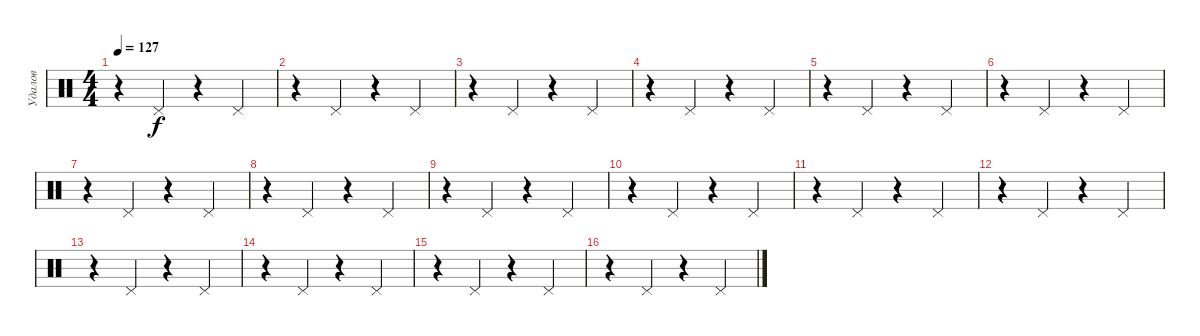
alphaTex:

\track ("Удалов" "Удалов") {instrument percussion}
\staff {score}
\articulation defaults
\ts (4 4)
\tempo 127
\clef neutral
\ks c
r.4{dy f} "Pedal Hi-Hat (hit)".4 r.4 "Pedal Hi-Hat (hit)".4 |
r.4 "Pedal Hi-Hat (hit)".4 r.4 "Pedal Hi-Hat (hit)".4 |
r.4 "Pedal Hi-Hat (hit)".4 r.4 "Pedal Hi-Hat (hit)".4 |
r.4 "Pedal Hi-Hat (hit)".4 r.4 "Pedal Hi-Hat (hit)".4 |
r.4 "Pedal Hi-Hat (hit)".4 r.4 "Pedal Hi-Hat (hit)".4 |
r.4 "Pedal Hi-Hat (hit)".4 r.4 "Pedal Hi-Hat (hit)".4 |
r.4 "Pedal Hi-Hat (hit)".4 r.4 "Pedal Hi-Hat (hit)".4 |
r.4 "Pedal Hi-Hat (hit)".4 r.4 "Pedal Hi-Hat (hit)".4 |
r.4 "Pedal Hi-Hat (hit)".4 r.4 "Pedal Hi-Hat (hit)".4 |
r.4 "Pedal Hi-Hat (hit)".4 r.4 "Pedal Hi-Hat (hit)".4 |
r.4 "Pedal Hi-Hat (hit)".4 r.4 "Pedal Hi-Hat (hit)".4 |
r.4 "Pedal Hi-Hat (hit)".4 r.4 "Pedal Hi-Hat (hit)".4 |
r.4 "Pedal Hi-Hat (hit)".4 r.4 "Pedal Hi-Hat (hit)".4 |
r.4 "Pedal Hi-Hat (hit)".4 r.4 "Pedal Hi-Hat (hit)".4 |
r.4 "Pedal Hi-Hat (hit)".4 r.4 "Pedal Hi-Hat (hit)".4 |
r.4 "Pedal Hi-Hat (hit)".4 r.4 "Pedal Hi-Hat (hit)".4
